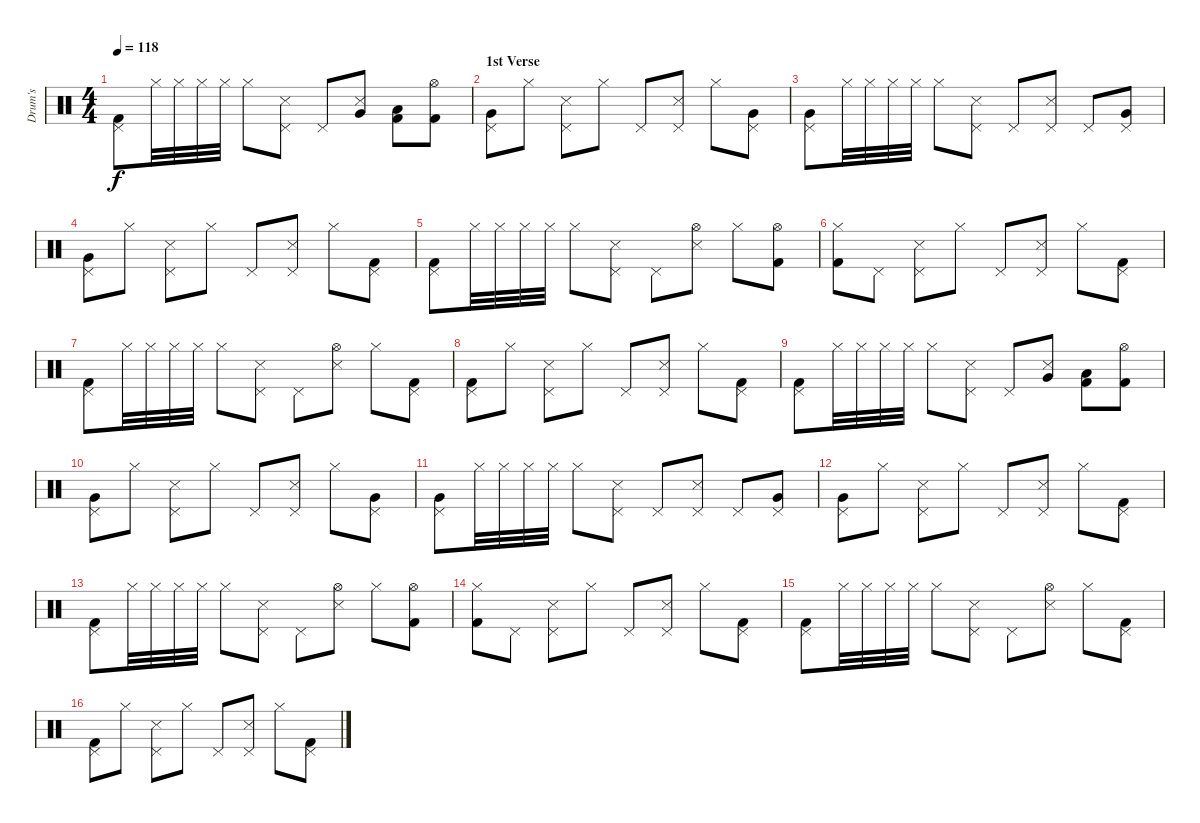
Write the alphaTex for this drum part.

\track ("Drum's" "Drum's") {instrument percussion}
\staff {score}
\articulation defaults
\ts (4 4)
\tempo 118
\clef neutral
\ks c
("Pedal Hi-Hat (hit)" "Kick (hit) 2").8{dy f} "Hi-Hat (closed)".32 "Hi-Hat (closed)".32 "Hi-Hat (closed)".32 "Hi-Hat (closed)".32 "Hi-Hat (closed)".8 ("Pedal Hi-Hat (hit)" "Snare (side stick) 3").8 "Pedal Hi-Hat (hit)".8 ("Snare (side stick) 3" "Very Low Tom (hit)").8 ("Kick (hit) 2" "Low Tom (hit)").8 ("Hi-Hat (open)" "Kick (hit) 2").8 |
\section ("" "1st Verse")
("Pedal Hi-Hat (hit)" "Very Low Tom (hit)").8 "Hi-Hat (closed)".8 ("Pedal Hi-Hat (hit)" "Snare (side stick) 3").8 "Hi-Hat (closed)".8 "Pedal Hi-Hat (hit)".8 ("Pedal Hi-Hat (hit)" "Snare (side stick) 3").8 "Hi-Hat (closed)".8 ("Pedal Hi-Hat (hit)" "Very Low Tom (hit)").8 |
("Pedal Hi-Hat (hit)" "Very Low Tom (hit)").8 "Hi-Hat (closed)".32 "Hi-Hat (closed)".32 "Hi-Hat (closed)".32 "Hi-Hat (closed)".32 "Hi-Hat (closed)".8 ("Pedal Hi-Hat (hit)" "Snare (side stick) 3").8 "Pedal Hi-Hat (hit)".8 ("Pedal Hi-Hat (hit)" "Snare (side stick) 3").8 "Pedal Hi-Hat (hit)".8 ("Pedal Hi-Hat (hit)" "Very Low Tom (hit)").8 |
("Pedal Hi-Hat (hit)" "Very Low Tom (hit)").8 "Hi-Hat (closed)".8 ("Pedal Hi-Hat (hit)" "Snare (side stick) 3").8 "Hi-Hat (closed)".8 "Pedal Hi-Hat (hit)".8 ("Pedal Hi-Hat (hit)" "Snare (side stick) 3").8 "Hi-Hat (closed)".8 ("Pedal Hi-Hat (hit)" "Kick (hit) 2").8 |
("Pedal Hi-Hat (hit)" "Kick (hit) 2").8 "Hi-Hat (closed)".32 "Hi-Hat (closed)".32 "Hi-Hat (closed)".32 "Hi-Hat (closed)".32 "Hi-Hat (closed)".8 ("Pedal Hi-Hat (hit)" "Snare (side stick) 3").8 "Pedal Hi-Hat (hit)".8 ("Hi-Hat (open)" "Snare (side stick) 3").8 "Hi-Hat (closed)".8 ("Hi-Hat (open)" "Kick (hit) 2").8 |
("Hi-Hat (closed)" "Kick (hit) 2").8 "Pedal Hi-Hat (hit)".8 ("Pedal Hi-Hat (hit)" "Snare (side stick) 3").8 "Hi-Hat (closed)".8 "Pedal Hi-Hat (hit)".8 ("Pedal Hi-Hat (hit)" "Snare (side stick) 3").8 "Hi-Hat (closed)".8 ("Pedal Hi-Hat (hit)" "Kick (hit) 2").8 |
("Pedal Hi-Hat (hit)" "Kick (hit) 2").8 "Hi-Hat (closed)".32 "Hi-Hat (closed)".32 "Hi-Hat (closed)".32 "Hi-Hat (closed)".32 "Hi-Hat (closed)".8 ("Pedal Hi-Hat (hit)" "Snare (side stick) 3").8 "Pedal Hi-Hat (hit)".8 ("Hi-Hat (open)" "Snare (side stick) 3").8 "Hi-Hat (closed)".8 ("Pedal Hi-Hat (hit)" "Kick (hit) 2").8 |
("Pedal Hi-Hat (hit)" "Kick (hit) 2").8 "Hi-Hat (closed)".8 ("Pedal Hi-Hat (hit)" "Snare (side stick) 3").8 "Hi-Hat (closed)".8 "Pedal Hi-Hat (hit)".8 ("Pedal Hi-Hat (hit)" "Snare (side stick) 3").8 "Hi-Hat (closed)".8 ("Pedal Hi-Hat (hit)" "Kick (hit) 2").8 |
("Pedal Hi-Hat (hit)" "Kick (hit) 2").8 "Hi-Hat (closed)".32 "Hi-Hat (closed)".32 "Hi-Hat (closed)".32 "Hi-Hat (closed)".32 "Hi-Hat (closed)".8 ("Pedal Hi-Hat (hit)" "Snare (side stick) 3").8 "Pedal Hi-Hat (hit)".8 ("Snare (side stick) 3" "Very Low Tom (hit)").8 ("Kick (hit) 2" "Low Tom (hit)").8 ("Hi-Hat (open)" "Kick (hit) 2").8 |
("Pedal Hi-Hat (hit)" "Very Low Tom (hit)").8 "Hi-Hat (closed)".8 ("Pedal Hi-Hat (hit)" "Snare (side stick) 3").8 "Hi-Hat (closed)".8 "Pedal Hi-Hat (hit)".8 ("Pedal Hi-Hat (hit)" "Snare (side stick) 3").8 "Hi-Hat (closed)".8 ("Pedal Hi-Hat (hit)" "Very Low Tom (hit)").8 |
("Pedal Hi-Hat (hit)" "Very Low Tom (hit)").8 "Hi-Hat (closed)".32 "Hi-Hat (closed)".32 "Hi-Hat (closed)".32 "Hi-Hat (closed)".32 "Hi-Hat (closed)".8 ("Pedal Hi-Hat (hit)" "Snare (side stick) 3").8 "Pedal Hi-Hat (hit)".8 ("Pedal Hi-Hat (hit)" "Snare (side stick) 3").8 "Pedal Hi-Hat (hit)".8 ("Pedal Hi-Hat (hit)" "Very Low Tom (hit)").8 |
("Pedal Hi-Hat (hit)" "Very Low Tom (hit)").8 "Hi-Hat (closed)".8 ("Pedal Hi-Hat (hit)" "Snare (side stick) 3").8 "Hi-Hat (closed)".8 "Pedal Hi-Hat (hit)".8 ("Pedal Hi-Hat (hit)" "Snare (side stick) 3").8 "Hi-Hat (closed)".8 ("Pedal Hi-Hat (hit)" "Kick (hit) 2").8 |
("Pedal Hi-Hat (hit)" "Kick (hit) 2").8 "Hi-Hat (closed)".32 "Hi-Hat (closed)".32 "Hi-Hat (closed)".32 "Hi-Hat (closed)".32 "Hi-Hat (closed)".8 ("Pedal Hi-Hat (hit)" "Snare (side stick) 3").8 "Pedal Hi-Hat (hit)".8 ("Hi-Hat (open)" "Snare (side stick) 3").8 "Hi-Hat (closed)".8 ("Hi-Hat (open)" "Kick (hit) 2").8 |
("Hi-Hat (closed)" "Kick (hit) 2").8 "Pedal Hi-Hat (hit)".8 ("Pedal Hi-Hat (hit)" "Snare (side stick) 3").8 "Hi-Hat (closed)".8 "Pedal Hi-Hat (hit)".8 ("Pedal Hi-Hat (hit)" "Snare (side stick) 3").8 "Hi-Hat (closed)".8 ("Pedal Hi-Hat (hit)" "Kick (hit) 2").8 |
("Pedal Hi-Hat (hit)" "Kick (hit) 2").8 "Hi-Hat (closed)".32 "Hi-Hat (closed)".32 "Hi-Hat (closed)".32 "Hi-Hat (closed)".32 "Hi-Hat (closed)".8 ("Pedal Hi-Hat (hit)" "Snare (side stick) 3").8 "Pedal Hi-Hat (hit)".8 ("Hi-Hat (open)" "Snare (side stick) 3").8 "Hi-Hat (closed)".8 ("Pedal Hi-Hat (hit)" "Kick (hit) 2").8 |
("Pedal Hi-Hat (hit)" "Kick (hit) 2").8 "Hi-Hat (closed)".8 ("Pedal Hi-Hat (hit)" "Snare (side stick) 3").8 "Hi-Hat (closed)".8 "Pedal Hi-Hat (hit)".8 ("Pedal Hi-Hat (hit)" "Snare (side stick) 3").8 "Hi-Hat (closed)".8 ("Pedal Hi-Hat (hit)" "Kick (hit) 2").8
